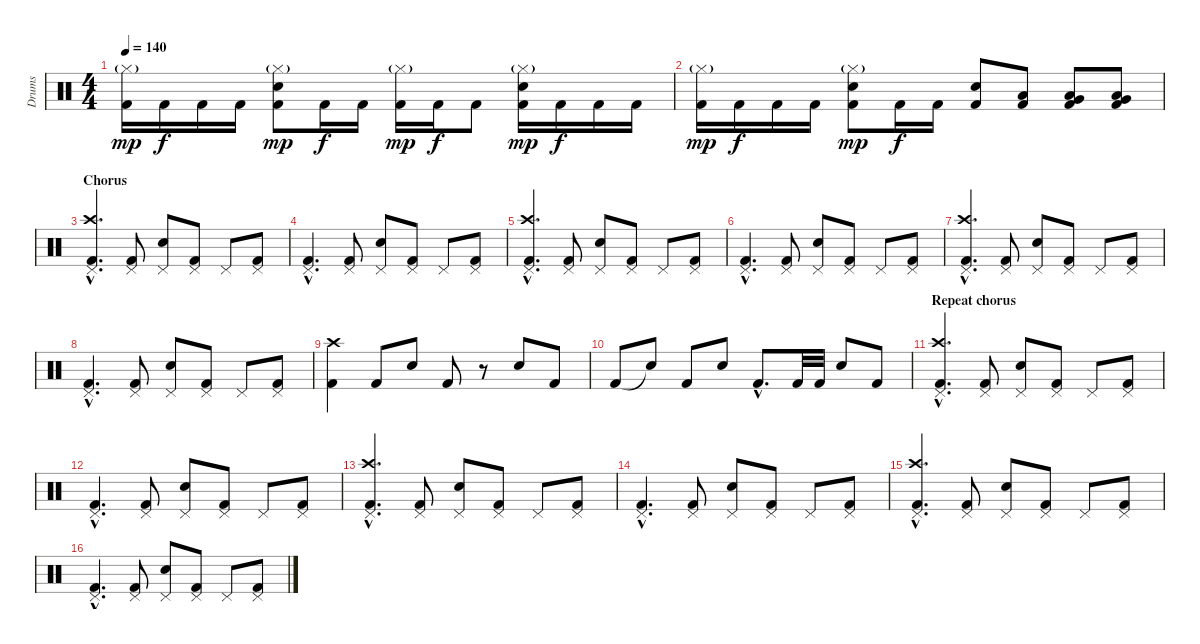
\track ("Drums" "Drums") {instrument percussion}
\staff {score}
\articulation defaults
\ts (4 4)
\tempo 140
\clef neutral
\ks c
("Hi-Hat (closed)"{g} "Kick (hit) 2").16{dy mp} "Kick (hit) 2".16{dy f} "Kick (hit) 2".16 "Kick (hit) 2".16 ("Hi-Hat (closed)"{g} "Electric Snare (hit)" "Kick (hit) 2").8{dy mp} "Kick (hit) 2".16{dy f} "Kick (hit) 2".16 ("Hi-Hat (closed)"{g} "Kick (hit) 2").16{dy mp} "Kick (hit) 2".16{dy f} "Kick (hit) 2".8 ("Hi-Hat (closed)"{g} "Electric Snare (hit)" "Kick (hit) 2").16{dy mp} "Kick (hit) 2".16{dy f} "Kick (hit) 2".16 "Kick (hit) 2".16 |
("Hi-Hat (closed)"{g} "Kick (hit) 2").16{dy mp} "Kick (hit) 2".16{dy f} "Kick (hit) 2".16 "Kick (hit) 2".16 ("Hi-Hat (closed)"{g} "Electric Snare (hit)" "Kick (hit) 2").8{dy mp} "Kick (hit) 2".16{dy f} "Kick (hit) 2".16 ("Electric Snare (hit)" "Kick (hit) 2").8 ("Low Floor Tom (hit)" "Kick (hit) 2").8 ("Low Tom (hit)" "Very Low Tom (hit)" "Kick (hit) 2").8 ("Low Tom (hit)" "Very Low Tom (hit)" "Kick (hit) 2").8 |
\section ("" "Chorus")
("Crash high (hit)"{hac} "Pedal Hi-Hat (hit)"{hac} "Kick (hit) 2"{hac}).4{d} ("Pedal Hi-Hat (hit)" "Kick (hit) 2").8 ("Pedal Hi-Hat (hit)" "Electric Snare (hit)").8 ("Pedal Hi-Hat (hit)" "Kick (hit) 2").8 "Pedal Hi-Hat (hit)".8 ("Pedal Hi-Hat (hit)" "Kick (hit) 2").8 |
("Pedal Hi-Hat (hit)"{hac} "Kick (hit) 2"{hac}).4{d} ("Pedal Hi-Hat (hit)" "Kick (hit) 2").8 ("Pedal Hi-Hat (hit)" "Electric Snare (hit)").8 ("Pedal Hi-Hat (hit)" "Kick (hit) 2").8 "Pedal Hi-Hat (hit)".8 ("Pedal Hi-Hat (hit)" "Kick (hit) 2").8 |
("Crash high (hit)"{hac} "Pedal Hi-Hat (hit)"{hac} "Kick (hit) 2"{hac}).4{d} ("Pedal Hi-Hat (hit)" "Kick (hit) 2").8 ("Pedal Hi-Hat (hit)" "Electric Snare (hit)").8 ("Pedal Hi-Hat (hit)" "Kick (hit) 2").8 "Pedal Hi-Hat (hit)".8 ("Pedal Hi-Hat (hit)" "Kick (hit) 2").8 |
("Pedal Hi-Hat (hit)"{hac} "Kick (hit) 2"{hac}).4{d} ("Pedal Hi-Hat (hit)" "Kick (hit) 2").8 ("Pedal Hi-Hat (hit)" "Electric Snare (hit)").8 ("Pedal Hi-Hat (hit)" "Kick (hit) 2").8 "Pedal Hi-Hat (hit)".8 ("Pedal Hi-Hat (hit)" "Kick (hit) 2").8 |
("Crash high (hit)"{hac} "Pedal Hi-Hat (hit)"{hac} "Kick (hit) 2"{hac}).4{d} ("Pedal Hi-Hat (hit)" "Kick (hit) 2").8 ("Pedal Hi-Hat (hit)" "Electric Snare (hit)").8 ("Pedal Hi-Hat (hit)" "Kick (hit) 2").8 "Pedal Hi-Hat (hit)".8 ("Pedal Hi-Hat (hit)" "Kick (hit) 2").8 |
("Pedal Hi-Hat (hit)"{hac} "Kick (hit) 2"{hac}).4{d} ("Pedal Hi-Hat (hit)" "Kick (hit) 2").8 ("Pedal Hi-Hat (hit)" "Electric Snare (hit)").8 ("Pedal Hi-Hat (hit)" "Kick (hit) 2").8 "Pedal Hi-Hat (hit)".8 ("Pedal Hi-Hat (hit)" "Kick (hit) 2").8 |
("Crash high (hit)" "Kick (hit) 2").4 "Kick (hit) 2".8 "Electric Snare (hit)".8 "Kick (hit) 2".8 r.8 "Electric Snare (hit)".8 "Kick (hit) 2".8 |
"Kick (hit) 2".8 "Snare (hit)"{t}.8 "Kick (hit) 2".8 "Electric Snare (hit)".8 "Kick (hit) 2"{hac}.8{d} "Kick (hit) 2".32 "Kick (hit) 2".32 "Electric Snare (hit)".8 "Kick (hit) 2".8 |
\section ("" "Repeat chorus")
("Crash high (hit)"{hac} "Pedal Hi-Hat (hit)"{hac} "Kick (hit) 2"{hac}).4{d} ("Pedal Hi-Hat (hit)" "Kick (hit) 2").8 ("Pedal Hi-Hat (hit)" "Electric Snare (hit)").8 ("Pedal Hi-Hat (hit)" "Kick (hit) 2").8 "Pedal Hi-Hat (hit)".8 ("Pedal Hi-Hat (hit)" "Kick (hit) 2").8 |
("Pedal Hi-Hat (hit)"{hac} "Kick (hit) 2"{hac}).4{d} ("Pedal Hi-Hat (hit)" "Kick (hit) 2").8 ("Pedal Hi-Hat (hit)" "Electric Snare (hit)").8 ("Pedal Hi-Hat (hit)" "Kick (hit) 2").8 "Pedal Hi-Hat (hit)".8 ("Pedal Hi-Hat (hit)" "Kick (hit) 2").8 |
("Crash high (hit)"{hac} "Pedal Hi-Hat (hit)"{hac} "Kick (hit) 2"{hac}).4{d} ("Pedal Hi-Hat (hit)" "Kick (hit) 2").8 ("Pedal Hi-Hat (hit)" "Electric Snare (hit)").8 ("Pedal Hi-Hat (hit)" "Kick (hit) 2").8 "Pedal Hi-Hat (hit)".8 ("Pedal Hi-Hat (hit)" "Kick (hit) 2").8 |
("Pedal Hi-Hat (hit)"{hac} "Kick (hit) 2"{hac}).4{d} ("Pedal Hi-Hat (hit)" "Kick (hit) 2").8 ("Pedal Hi-Hat (hit)" "Electric Snare (hit)").8 ("Pedal Hi-Hat (hit)" "Kick (hit) 2").8 "Pedal Hi-Hat (hit)".8 ("Pedal Hi-Hat (hit)" "Kick (hit) 2").8 |
("Crash high (hit)"{hac} "Pedal Hi-Hat (hit)"{hac} "Kick (hit) 2"{hac}).4{d} ("Pedal Hi-Hat (hit)" "Kick (hit) 2").8 ("Pedal Hi-Hat (hit)" "Electric Snare (hit)").8 ("Pedal Hi-Hat (hit)" "Kick (hit) 2").8 "Pedal Hi-Hat (hit)".8 ("Pedal Hi-Hat (hit)" "Kick (hit) 2").8 |
("Pedal Hi-Hat (hit)"{hac} "Kick (hit) 2"{hac}).4{d} ("Pedal Hi-Hat (hit)" "Kick (hit) 2").8 ("Pedal Hi-Hat (hit)" "Electric Snare (hit)").8 ("Pedal Hi-Hat (hit)" "Kick (hit) 2").8 "Pedal Hi-Hat (hit)".8 ("Pedal Hi-Hat (hit)" "Kick (hit) 2").8
